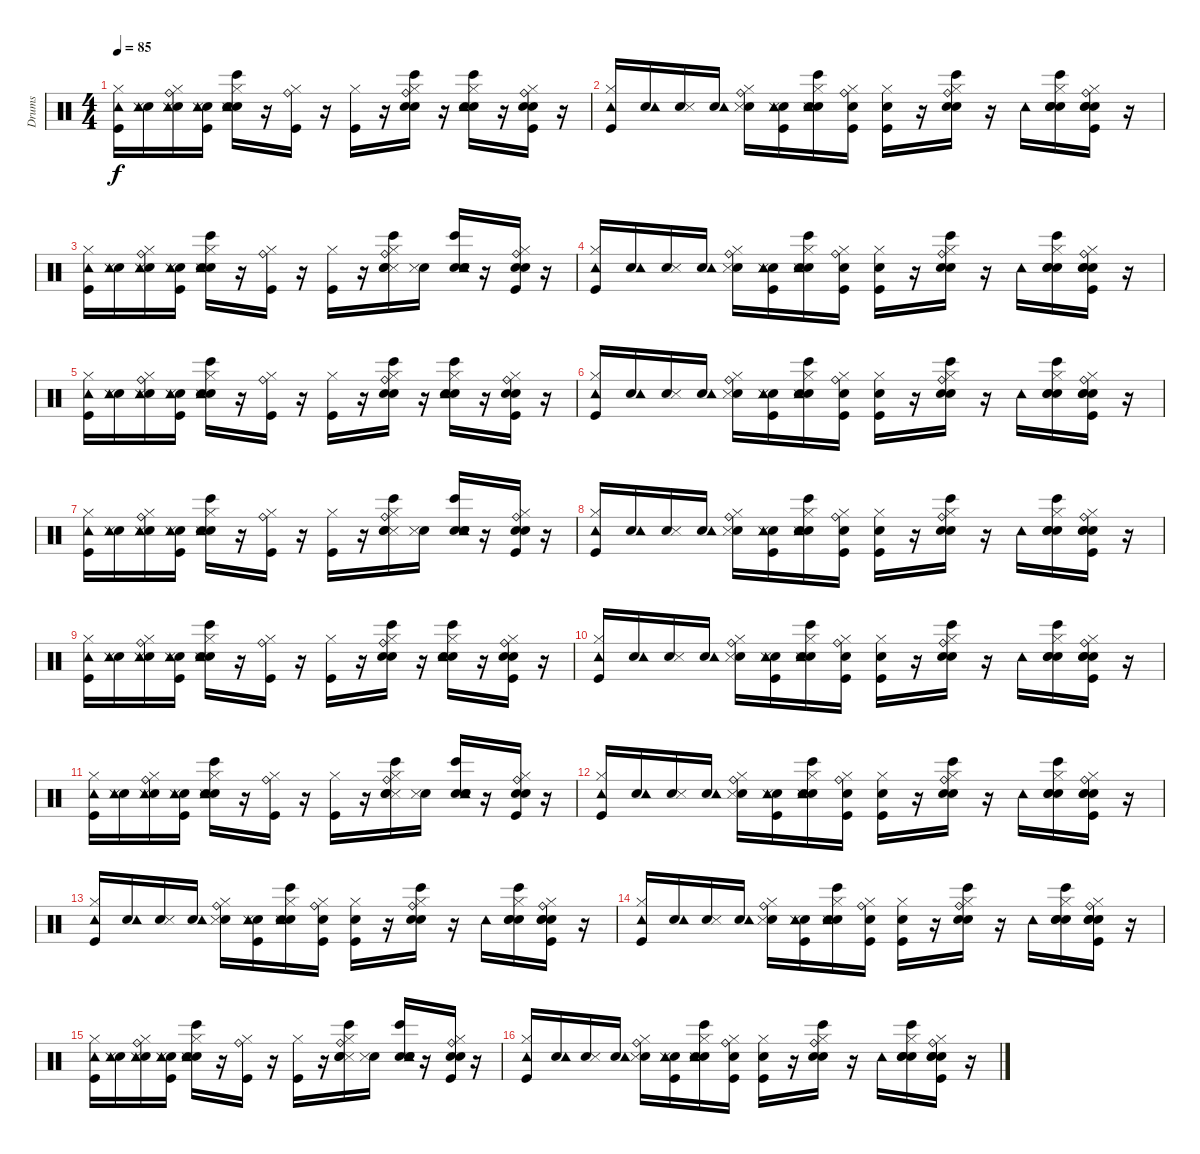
\track ("Drums" "Drums") {instrument percussion}
\staff {score}
\articulation defaults
\ts (4 4)
\tempo 85
\clef neutral
\ks c
("Kick (hit)" "Hi-Hat (closed)" "Tambourine (hit)").16{dy f} ("Snare (hit)" "Metronome (hit)" "Tambourine (hit)").16 ("Snare (hit)" "Metronome (hit)" "Hi-Hat (closed)" "Ride (bell)" "Tambourine (hit)").16 ("Snare (hit)" "Metronome (hit)" "Kick (hit)" "Tambourine (hit)").16 ("Snare (hit)" "Bongo High (hit)" "Metronome (hit)" "Snare (hit) 2" "Hi-Hat (closed)" "Tambourine (hit)").16 r.16 ("Kick (hit)" "Hi-Hat (closed)" "Ride (bell)").16 r.16 ("Kick (hit)" "Hi-Hat (closed)").16 r.16 ("Bongo High (hit)" "Snare (hit) 2" "Hand Clap (hit)" "Hi-Hat (closed)" "Ride (bell)").16 r.16 ("Bongo High (hit)" "Snare (hit) 2" "Hand Clap (hit)" "Hi-Hat (closed)" "Tambourine (hit)").16 r.16 ("Kick (hit)" "Snare (hit) 2" "Hand Clap (hit)" "Hi-Hat (closed)" "Ride (bell)").16 r.16 |
("Kick (hit)" "Hi-Hat (closed)" "Tambourine (hit)").16 ("Snare (hit)" "Tambourine (hit)").16 ("Snare (hit)" "Metronome (hit)").16 ("Snare (hit)" "Tambourine (hit)").16 ("Snare (hit)" "Metronome (hit)" "Hi-Hat (closed)" "Ride (bell)").16 ("Snare (hit)" "Tambourine (hit)" "Metronome (hit)" "Kick (hit)").16 ("Snare (hit)" "Bongo High (hit)" "Metronome (hit)" "Snare (hit) 2" "Hi-Hat (closed)" "Tambourine (hit)").16 ("Snare (hit)" "Kick (hit)" "Hi-Hat (closed)" "Ride (bell)").16 ("Snare (hit)" "Kick (hit)" "Hi-Hat (closed)").16 r.16 ("Bongo High (hit)" "Snare (hit) 2" "Hand Clap (hit)" "Hi-Hat (closed)" "Ride (bell)").16 r.16 "Tambourine (hit)".16 ("Snare (hit)" "Bongo High (hit)" "Snare (hit) 2" "Hand Clap (hit)" "Hi-Hat (closed)").16 ("Snare (hit)" "Kick (hit)" "Snare (hit) 2" "Hand Clap (hit)" "Hi-Hat (closed)" "Ride (bell)").16 r.16 |
("Kick (hit)" "Hi-Hat (closed)" "Tambourine (hit)").16 ("Snare (hit)" "Metronome (hit)" "Tambourine (hit)").16 ("Snare (hit)" "Metronome (hit)" "Hi-Hat (closed)" "Ride (bell)" "Tambourine (hit)").16 ("Snare (hit)" "Metronome (hit)" "Kick (hit)" "Tambourine (hit)").16 ("Snare (hit)" "Bongo High (hit)" "Metronome (hit)" "Snare (hit) 2" "Hi-Hat (closed)" "Tambourine (hit)").16 r.16 ("Kick (hit)" "Hi-Hat (closed)" "Ride (bell)").16 r.16 ("Kick (hit)" "Hi-Hat (closed)").16 r.16 ("Bongo High (hit)" "Metronome (hit)" "Snare (hit) 2" "Hand Clap (hit)" "Hi-Hat (closed)" "Ride (bell)").16 ("Snare (hit)" "Metronome (hit)").16 ("Snare (hit)" "Bongo High (hit)" "Metronome (hit)" "Snare (hit) 2" "Hand Clap (hit)" "Tambourine (hit)").16 r.16 ("Kick (hit)" "Snare (hit) 2" "Hand Clap (hit)" "Hi-Hat (closed)" "Ride (bell)").16 r.16 |
("Kick (hit)" "Hi-Hat (closed)" "Tambourine (hit)").16 ("Snare (hit)" "Tambourine (hit)").16 ("Snare (hit)" "Metronome (hit)").16 ("Snare (hit)" "Tambourine (hit)").16 ("Snare (hit)" "Metronome (hit)" "Hi-Hat (closed)" "Ride (bell)").16 ("Snare (hit)" "Tambourine (hit)" "Metronome (hit)" "Kick (hit)").16 ("Snare (hit)" "Bongo High (hit)" "Metronome (hit)" "Snare (hit) 2" "Hi-Hat (closed)" "Tambourine (hit)").16 ("Snare (hit)" "Kick (hit)" "Hi-Hat (closed)" "Ride (bell)").16 ("Snare (hit)" "Kick (hit)" "Hi-Hat (closed)").16 r.16 ("Bongo High (hit)" "Snare (hit) 2" "Hand Clap (hit)" "Hi-Hat (closed)" "Ride (bell)").16 r.16 "Tambourine (hit)".16 ("Snare (hit)" "Bongo High (hit)" "Snare (hit) 2" "Hand Clap (hit)" "Hi-Hat (closed)").16 ("Snare (hit)" "Kick (hit)" "Snare (hit) 2" "Hand Clap (hit)" "Hi-Hat (closed)" "Ride (bell)").16 r.16 |
("Kick (hit)" "Hi-Hat (closed)" "Tambourine (hit)").16 ("Snare (hit)" "Metronome (hit)" "Tambourine (hit)").16 ("Snare (hit)" "Metronome (hit)" "Hi-Hat (closed)" "Ride (bell)" "Tambourine (hit)").16 ("Snare (hit)" "Metronome (hit)" "Kick (hit)" "Tambourine (hit)").16 ("Snare (hit)" "Bongo High (hit)" "Metronome (hit)" "Snare (hit) 2" "Hi-Hat (closed)" "Tambourine (hit)").16 r.16 ("Kick (hit)" "Hi-Hat (closed)" "Ride (bell)").16 r.16 ("Kick (hit)" "Hi-Hat (closed)").16 r.16 ("Bongo High (hit)" "Snare (hit) 2" "Hand Clap (hit)" "Hi-Hat (closed)" "Ride (bell)").16 r.16 ("Bongo High (hit)" "Snare (hit) 2" "Hand Clap (hit)" "Hi-Hat (closed)" "Tambourine (hit)").16 r.16 ("Kick (hit)" "Snare (hit) 2" "Hand Clap (hit)" "Hi-Hat (closed)" "Ride (bell)").16 r.16 |
("Kick (hit)" "Hi-Hat (closed)" "Tambourine (hit)").16 ("Snare (hit)" "Tambourine (hit)").16 ("Snare (hit)" "Metronome (hit)").16 ("Snare (hit)" "Tambourine (hit)").16 ("Snare (hit)" "Metronome (hit)" "Hi-Hat (closed)" "Ride (bell)").16 ("Snare (hit)" "Tambourine (hit)" "Metronome (hit)" "Kick (hit)").16 ("Snare (hit)" "Bongo High (hit)" "Metronome (hit)" "Snare (hit) 2" "Hi-Hat (closed)" "Tambourine (hit)").16 ("Snare (hit)" "Kick (hit)" "Hi-Hat (closed)" "Ride (bell)").16 ("Snare (hit)" "Kick (hit)" "Hi-Hat (closed)").16 r.16 ("Bongo High (hit)" "Snare (hit) 2" "Hand Clap (hit)" "Hi-Hat (closed)" "Ride (bell)").16 r.16 "Tambourine (hit)".16 ("Snare (hit)" "Bongo High (hit)" "Snare (hit) 2" "Hand Clap (hit)" "Hi-Hat (closed)").16 ("Snare (hit)" "Kick (hit)" "Snare (hit) 2" "Hand Clap (hit)" "Hi-Hat (closed)" "Ride (bell)").16 r.16 |
("Kick (hit)" "Hi-Hat (closed)" "Tambourine (hit)").16 ("Snare (hit)" "Metronome (hit)" "Tambourine (hit)").16 ("Snare (hit)" "Metronome (hit)" "Hi-Hat (closed)" "Ride (bell)" "Tambourine (hit)").16 ("Snare (hit)" "Metronome (hit)" "Kick (hit)" "Tambourine (hit)").16 ("Snare (hit)" "Bongo High (hit)" "Metronome (hit)" "Snare (hit) 2" "Hi-Hat (closed)" "Tambourine (hit)").16 r.16 ("Kick (hit)" "Hi-Hat (closed)" "Ride (bell)").16 r.16 ("Kick (hit)" "Hi-Hat (closed)").16 r.16 ("Bongo High (hit)" "Metronome (hit)" "Snare (hit) 2" "Hand Clap (hit)" "Hi-Hat (closed)" "Ride (bell)").16 ("Snare (hit)" "Metronome (hit)").16 ("Snare (hit)" "Bongo High (hit)" "Metronome (hit)" "Snare (hit) 2" "Hand Clap (hit)" "Tambourine (hit)").16 r.16 ("Kick (hit)" "Snare (hit) 2" "Hand Clap (hit)" "Hi-Hat (closed)" "Ride (bell)").16 r.16 |
("Kick (hit)" "Hi-Hat (closed)" "Tambourine (hit)").16 ("Snare (hit)" "Tambourine (hit)").16 ("Snare (hit)" "Metronome (hit)").16 ("Snare (hit)" "Tambourine (hit)").16 ("Snare (hit)" "Metronome (hit)" "Hi-Hat (closed)" "Ride (bell)").16 ("Snare (hit)" "Tambourine (hit)" "Metronome (hit)" "Kick (hit)").16 ("Snare (hit)" "Bongo High (hit)" "Metronome (hit)" "Snare (hit) 2" "Hi-Hat (closed)" "Tambourine (hit)").16 ("Snare (hit)" "Kick (hit)" "Hi-Hat (closed)" "Ride (bell)").16 ("Snare (hit)" "Kick (hit)" "Hi-Hat (closed)").16 r.16 ("Bongo High (hit)" "Snare (hit) 2" "Hand Clap (hit)" "Hi-Hat (closed)" "Ride (bell)").16 r.16 "Tambourine (hit)".16 ("Snare (hit)" "Bongo High (hit)" "Snare (hit) 2" "Hand Clap (hit)" "Hi-Hat (closed)").16 ("Snare (hit)" "Kick (hit)" "Snare (hit) 2" "Hand Clap (hit)" "Hi-Hat (closed)" "Ride (bell)").16 r.16 |
("Kick (hit)" "Hi-Hat (closed)" "Tambourine (hit)").16 ("Snare (hit)" "Metronome (hit)" "Tambourine (hit)").16 ("Snare (hit)" "Metronome (hit)" "Hi-Hat (closed)" "Ride (bell)" "Tambourine (hit)").16 ("Snare (hit)" "Metronome (hit)" "Kick (hit)" "Tambourine (hit)").16 ("Snare (hit)" "Bongo High (hit)" "Metronome (hit)" "Snare (hit) 2" "Hi-Hat (closed)" "Tambourine (hit)").16 r.16 ("Kick (hit)" "Hi-Hat (closed)" "Ride (bell)").16 r.16 ("Kick (hit)" "Hi-Hat (closed)").16 r.16 ("Bongo High (hit)" "Snare (hit) 2" "Hand Clap (hit)" "Hi-Hat (closed)" "Ride (bell)").16 r.16 ("Bongo High (hit)" "Snare (hit) 2" "Hand Clap (hit)" "Hi-Hat (closed)" "Tambourine (hit)").16 r.16 ("Kick (hit)" "Snare (hit) 2" "Hand Clap (hit)" "Hi-Hat (closed)" "Ride (bell)").16 r.16 |
("Kick (hit)" "Hi-Hat (closed)" "Tambourine (hit)").16 ("Snare (hit)" "Tambourine (hit)").16 ("Snare (hit)" "Metronome (hit)").16 ("Snare (hit)" "Tambourine (hit)").16 ("Snare (hit)" "Metronome (hit)" "Hi-Hat (closed)" "Ride (bell)").16 ("Snare (hit)" "Tambourine (hit)" "Metronome (hit)" "Kick (hit)").16 ("Snare (hit)" "Bongo High (hit)" "Metronome (hit)" "Snare (hit) 2" "Hi-Hat (closed)" "Tambourine (hit)").16 ("Snare (hit)" "Kick (hit)" "Hi-Hat (closed)" "Ride (bell)").16 ("Snare (hit)" "Kick (hit)" "Hi-Hat (closed)").16 r.16 ("Bongo High (hit)" "Snare (hit) 2" "Hand Clap (hit)" "Hi-Hat (closed)" "Ride (bell)").16 r.16 "Tambourine (hit)".16 ("Snare (hit)" "Bongo High (hit)" "Snare (hit) 2" "Hand Clap (hit)" "Hi-Hat (closed)").16 ("Snare (hit)" "Kick (hit)" "Snare (hit) 2" "Hand Clap (hit)" "Hi-Hat (closed)" "Ride (bell)").16 r.16 |
("Kick (hit)" "Hi-Hat (closed)" "Tambourine (hit)").16 ("Snare (hit)" "Metronome (hit)" "Tambourine (hit)").16 ("Snare (hit)" "Metronome (hit)" "Hi-Hat (closed)" "Ride (bell)" "Tambourine (hit)").16 ("Snare (hit)" "Metronome (hit)" "Kick (hit)" "Tambourine (hit)").16 ("Snare (hit)" "Bongo High (hit)" "Metronome (hit)" "Snare (hit) 2" "Hi-Hat (closed)" "Tambourine (hit)").16 r.16 ("Kick (hit)" "Hi-Hat (closed)" "Ride (bell)").16 r.16 ("Kick (hit)" "Hi-Hat (closed)").16 r.16 ("Bongo High (hit)" "Metronome (hit)" "Snare (hit) 2" "Hand Clap (hit)" "Hi-Hat (closed)" "Ride (bell)").16 ("Snare (hit)" "Metronome (hit)").16 ("Snare (hit)" "Bongo High (hit)" "Metronome (hit)" "Snare (hit) 2" "Hand Clap (hit)" "Tambourine (hit)").16 r.16 ("Kick (hit)" "Snare (hit) 2" "Hand Clap (hit)" "Hi-Hat (closed)" "Ride (bell)").16 r.16 |
("Kick (hit)" "Hi-Hat (closed)" "Tambourine (hit)").16 ("Snare (hit)" "Tambourine (hit)").16 ("Snare (hit)" "Metronome (hit)").16 ("Snare (hit)" "Tambourine (hit)").16 ("Snare (hit)" "Metronome (hit)" "Hi-Hat (closed)" "Ride (bell)").16 ("Snare (hit)" "Tambourine (hit)" "Metronome (hit)" "Kick (hit)").16 ("Snare (hit)" "Bongo High (hit)" "Metronome (hit)" "Snare (hit) 2" "Hi-Hat (closed)" "Tambourine (hit)").16 ("Snare (hit)" "Kick (hit)" "Hi-Hat (closed)" "Ride (bell)").16 ("Snare (hit)" "Kick (hit)" "Hi-Hat (closed)").16 r.16 ("Bongo High (hit)" "Snare (hit) 2" "Hand Clap (hit)" "Hi-Hat (closed)" "Ride (bell)").16 r.16 "Tambourine (hit)".16 ("Snare (hit)" "Bongo High (hit)" "Snare (hit) 2" "Hand Clap (hit)" "Hi-Hat (closed)").16 ("Snare (hit)" "Kick (hit)" "Snare (hit) 2" "Hand Clap (hit)" "Hi-Hat (closed)" "Ride (bell)").16 r.16 |
("Kick (hit)" "Hi-Hat (closed)" "Tambourine (hit)").16 ("Snare (hit)" "Tambourine (hit)").16 ("Snare (hit)" "Metronome (hit)").16 ("Snare (hit)" "Tambourine (hit)").16 ("Snare (hit)" "Metronome (hit)" "Hi-Hat (closed)" "Ride (bell)").16 ("Snare (hit)" "Tambourine (hit)" "Metronome (hit)" "Kick (hit)").16 ("Snare (hit)" "Bongo High (hit)" "Metronome (hit)" "Snare (hit) 2" "Hi-Hat (closed)" "Tambourine (hit)").16 ("Snare (hit)" "Kick (hit)" "Hi-Hat (closed)" "Ride (bell)").16 ("Snare (hit)" "Kick (hit)" "Hi-Hat (closed)").16 r.16 ("Bongo High (hit)" "Snare (hit) 2" "Hand Clap (hit)" "Hi-Hat (closed)" "Ride (bell)").16 r.16 "Tambourine (hit)".16 ("Snare (hit)" "Bongo High (hit)" "Snare (hit) 2" "Hand Clap (hit)" "Hi-Hat (closed)").16 ("Snare (hit)" "Kick (hit)" "Snare (hit) 2" "Hand Clap (hit)" "Hi-Hat (closed)" "Ride (bell)").16 r.16 |
("Kick (hit)" "Hi-Hat (closed)" "Tambourine (hit)").16 ("Snare (hit)" "Tambourine (hit)").16 ("Snare (hit)" "Metronome (hit)").16 ("Snare (hit)" "Tambourine (hit)").16 ("Snare (hit)" "Metronome (hit)" "Hi-Hat (closed)" "Ride (bell)").16 ("Snare (hit)" "Tambourine (hit)" "Metronome (hit)" "Kick (hit)").16 ("Snare (hit)" "Bongo High (hit)" "Metronome (hit)" "Snare (hit) 2" "Hi-Hat (closed)" "Tambourine (hit)").16 ("Snare (hit)" "Kick (hit)" "Hi-Hat (closed)" "Ride (bell)").16 ("Snare (hit)" "Kick (hit)" "Hi-Hat (closed)").16 r.16 ("Bongo High (hit)" "Snare (hit) 2" "Hand Clap (hit)" "Hi-Hat (closed)" "Ride (bell)").16 r.16 "Tambourine (hit)".16 ("Snare (hit)" "Bongo High (hit)" "Snare (hit) 2" "Hand Clap (hit)" "Hi-Hat (closed)").16 ("Snare (hit)" "Kick (hit)" "Snare (hit) 2" "Hand Clap (hit)" "Hi-Hat (closed)" "Ride (bell)").16 r.16 |
("Kick (hit)" "Hi-Hat (closed)" "Tambourine (hit)").16 ("Snare (hit)" "Metronome (hit)" "Tambourine (hit)").16 ("Snare (hit)" "Metronome (hit)" "Hi-Hat (closed)" "Ride (bell)" "Tambourine (hit)").16 ("Snare (hit)" "Metronome (hit)" "Kick (hit)" "Tambourine (hit)").16 ("Snare (hit)" "Bongo High (hit)" "Metronome (hit)" "Snare (hit) 2" "Hi-Hat (closed)" "Tambourine (hit)").16 r.16 ("Kick (hit)" "Hi-Hat (closed)" "Ride (bell)").16 r.16 ("Kick (hit)" "Hi-Hat (closed)").16 r.16 ("Bongo High (hit)" "Metronome (hit)" "Snare (hit) 2" "Hand Clap (hit)" "Hi-Hat (closed)" "Ride (bell)").16 ("Snare (hit)" "Metronome (hit)").16 ("Snare (hit)" "Bongo High (hit)" "Metronome (hit)" "Snare (hit) 2" "Hand Clap (hit)" "Tambourine (hit)").16 r.16 ("Kick (hit)" "Snare (hit) 2" "Hand Clap (hit)" "Hi-Hat (closed)" "Ride (bell)").16 r.16 |
("Kick (hit)" "Hi-Hat (closed)" "Tambourine (hit)").16 ("Snare (hit)" "Tambourine (hit)").16 ("Snare (hit)" "Metronome (hit)").16 ("Snare (hit)" "Tambourine (hit)").16 ("Snare (hit)" "Metronome (hit)" "Hi-Hat (closed)" "Ride (bell)").16 ("Snare (hit)" "Tambourine (hit)" "Metronome (hit)" "Kick (hit)").16 ("Snare (hit)" "Bongo High (hit)" "Metronome (hit)" "Snare (hit) 2" "Hi-Hat (closed)" "Tambourine (hit)").16 ("Snare (hit)" "Kick (hit)" "Hi-Hat (closed)" "Ride (bell)").16 ("Snare (hit)" "Kick (hit)" "Hi-Hat (closed)").16 r.16 ("Bongo High (hit)" "Snare (hit) 2" "Hand Clap (hit)" "Hi-Hat (closed)" "Ride (bell)").16 r.16 "Tambourine (hit)".16 ("Snare (hit)" "Bongo High (hit)" "Snare (hit) 2" "Hand Clap (hit)" "Hi-Hat (closed)").16 ("Snare (hit)" "Kick (hit)" "Snare (hit) 2" "Hand Clap (hit)" "Hi-Hat (closed)" "Ride (bell)").16 r.16
